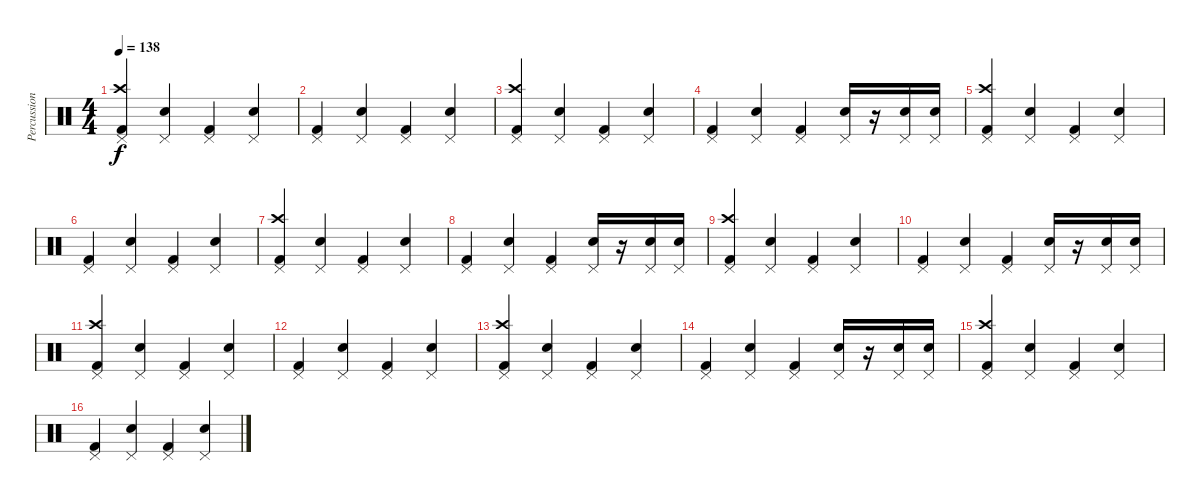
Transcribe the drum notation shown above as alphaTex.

\track ("Percussion" "Percussion") {instrument percussion}
\staff {score}
\articulation defaults
\ts (4 4)
\tempo 138
\clef neutral
\ks c
("Pedal Hi-Hat (hit)" "Crash high (hit)" "Kick (hit) 2").4{dy f} ("Pedal Hi-Hat (hit)" "Snare (hit) 2").4 ("Pedal Hi-Hat (hit)" "Kick (hit) 2").4 ("Pedal Hi-Hat (hit)" "Snare (hit) 2").4 |
("Pedal Hi-Hat (hit)" "Kick (hit) 2").4 ("Pedal Hi-Hat (hit)" "Snare (hit) 2").4 ("Pedal Hi-Hat (hit)" "Kick (hit) 2").4 ("Pedal Hi-Hat (hit)" "Snare (hit) 2").4 |
("Pedal Hi-Hat (hit)" "Crash high (hit)" "Kick (hit) 2").4 ("Pedal Hi-Hat (hit)" "Snare (hit) 2").4 ("Pedal Hi-Hat (hit)" "Kick (hit) 2").4 ("Pedal Hi-Hat (hit)" "Snare (hit) 2").4 |
("Pedal Hi-Hat (hit)" "Kick (hit) 2").4 ("Pedal Hi-Hat (hit)" "Snare (hit) 2").4 ("Pedal Hi-Hat (hit)" "Kick (hit) 2").4 ("Pedal Hi-Hat (hit)" "Snare (hit) 2").16 r.16 ("Pedal Hi-Hat (hit)" "Snare (hit) 2").16 ("Pedal Hi-Hat (hit)" "Snare (hit) 2").16 |
("Pedal Hi-Hat (hit)" "Crash high (hit)" "Kick (hit) 2").4 ("Pedal Hi-Hat (hit)" "Snare (hit) 2").4 ("Pedal Hi-Hat (hit)" "Kick (hit) 2").4 ("Pedal Hi-Hat (hit)" "Snare (hit) 2").4 |
("Pedal Hi-Hat (hit)" "Kick (hit) 2").4 ("Pedal Hi-Hat (hit)" "Snare (hit) 2").4 ("Pedal Hi-Hat (hit)" "Kick (hit) 2").4 ("Pedal Hi-Hat (hit)" "Snare (hit) 2").4 |
("Pedal Hi-Hat (hit)" "Crash high (hit)" "Kick (hit) 2").4 ("Pedal Hi-Hat (hit)" "Snare (hit) 2").4 ("Pedal Hi-Hat (hit)" "Kick (hit) 2").4 ("Pedal Hi-Hat (hit)" "Snare (hit) 2").4 |
("Pedal Hi-Hat (hit)" "Kick (hit) 2").4 ("Pedal Hi-Hat (hit)" "Snare (hit) 2").4 ("Pedal Hi-Hat (hit)" "Kick (hit) 2").4 ("Pedal Hi-Hat (hit)" "Snare (hit) 2").16 r.16 ("Pedal Hi-Hat (hit)" "Snare (hit) 2").16 ("Pedal Hi-Hat (hit)" "Snare (hit) 2").16 |
("Pedal Hi-Hat (hit)" "Crash high (hit)" "Kick (hit) 2").4 ("Pedal Hi-Hat (hit)" "Snare (hit) 2").4 ("Pedal Hi-Hat (hit)" "Kick (hit) 2").4 ("Pedal Hi-Hat (hit)" "Snare (hit) 2").4 |
("Pedal Hi-Hat (hit)" "Kick (hit) 2").4 ("Pedal Hi-Hat (hit)" "Snare (hit) 2").4 ("Pedal Hi-Hat (hit)" "Kick (hit) 2").4 ("Pedal Hi-Hat (hit)" "Snare (hit) 2").16 r.16 ("Pedal Hi-Hat (hit)" "Snare (hit) 2").16 ("Pedal Hi-Hat (hit)" "Snare (hit) 2").16 |
("Pedal Hi-Hat (hit)" "Crash high (hit)" "Kick (hit) 2").4 ("Pedal Hi-Hat (hit)" "Snare (hit) 2").4 ("Pedal Hi-Hat (hit)" "Kick (hit) 2").4 ("Pedal Hi-Hat (hit)" "Snare (hit) 2").4 |
("Pedal Hi-Hat (hit)" "Kick (hit) 2").4 ("Pedal Hi-Hat (hit)" "Snare (hit) 2").4 ("Pedal Hi-Hat (hit)" "Kick (hit) 2").4 ("Pedal Hi-Hat (hit)" "Snare (hit) 2").4 |
("Pedal Hi-Hat (hit)" "Crash high (hit)" "Kick (hit) 2").4 ("Pedal Hi-Hat (hit)" "Snare (hit) 2").4 ("Pedal Hi-Hat (hit)" "Kick (hit) 2").4 ("Pedal Hi-Hat (hit)" "Snare (hit) 2").4 |
("Pedal Hi-Hat (hit)" "Kick (hit) 2").4 ("Pedal Hi-Hat (hit)" "Snare (hit) 2").4 ("Pedal Hi-Hat (hit)" "Kick (hit) 2").4 ("Pedal Hi-Hat (hit)" "Snare (hit) 2").16 r.16 ("Pedal Hi-Hat (hit)" "Snare (hit) 2").16 ("Pedal Hi-Hat (hit)" "Snare (hit) 2").16 |
("Pedal Hi-Hat (hit)" "Crash high (hit)" "Kick (hit) 2").4 ("Pedal Hi-Hat (hit)" "Snare (hit) 2").4 ("Pedal Hi-Hat (hit)" "Kick (hit) 2").4 ("Pedal Hi-Hat (hit)" "Snare (hit) 2").4 |
("Pedal Hi-Hat (hit)" "Kick (hit) 2").4 ("Pedal Hi-Hat (hit)" "Snare (hit) 2").4 ("Pedal Hi-Hat (hit)" "Kick (hit) 2").4 ("Pedal Hi-Hat (hit)" "Snare (hit) 2").4
